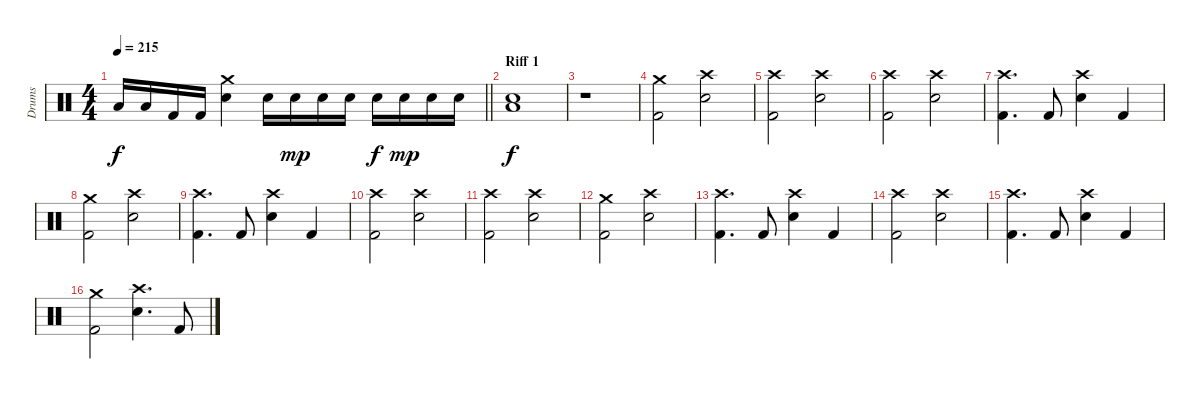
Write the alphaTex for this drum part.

\track ("Drums" "Drums") {instrument percussion}
\staff {score}
\articulation defaults
\ts (4 4)
\tempo 215
\clef neutral
\barLineRight lightlight
\ks c "Low Tom (hit)".16{dy f} "Low Floor Tom (hit)".16 "Kick (hit) 2".16 "Kick (hit) 2".16
("Electric Snare (hit)" "Crash medium (hit)").4 "Electric Snare (hit)".16 "Electric Snare (hit)".16{dy mp} "Electric Snare (hit)".16 "Electric Snare (hit)".16 "Electric Snare (hit)".16{dy f} "Electric Snare (hit)".16{dy mp} "Electric Snare (hit)".16 "Electric Snare (hit)".16 |
\section ("" "Riff 1")
("Electric Snare (hit)" "Low Floor Tom (hit)").1{dy f} |
r.1 |
("Kick (hit) 2" "Crash medium (hit)").2 ("Electric Snare (hit)" "Crash high (hit)").2 |
("Kick (hit) 2" "Crash high (hit)").2 ("Electric Snare (hit)" "Crash high (hit)").2 |
("Kick (hit) 2" "Crash high (hit)").2 ("Electric Snare (hit)" "Crash high (hit)").2 |
("Kick (hit) 2" "Crash high (hit)").4{d} "Kick (hit) 2".8 ("Electric Snare (hit)" "Crash high (hit)").4 "Kick (hit) 2".4 |
("Kick (hit) 2" "Crash medium (hit)").2 ("Electric Snare (hit)" "Crash high (hit)").2 |
("Kick (hit) 2" "Crash high (hit)").4{d} "Kick (hit) 2".8 ("Electric Snare (hit)" "Crash high (hit)").4 "Kick (hit) 2".4 |
("Kick (hit) 2" "Crash high (hit)").2 ("Electric Snare (hit)" "Crash high (hit)").2 |
("Kick (hit) 2" "Crash high (hit)").2 ("Electric Snare (hit)" "Crash high (hit)").2 |
("Kick (hit) 2" "Crash medium (hit)").2 ("Electric Snare (hit)" "Crash high (hit)").2 |
("Kick (hit) 2" "Crash high (hit)").4{d} "Kick (hit) 2".8 ("Electric Snare (hit)" "Crash high (hit)").4 "Kick (hit) 2".4 |
("Kick (hit) 2" "Crash high (hit)").2 ("Electric Snare (hit)" "Crash high (hit)").2 |
("Kick (hit) 2" "Crash high (hit)").4{d} "Kick (hit) 2".8 ("Electric Snare (hit)" "Crash high (hit)").4 "Kick (hit) 2".4 |
("Kick (hit) 2" "Crash medium (hit)").2 ("Electric Snare (hit)" "Crash high (hit)").4{d} "Kick (hit) 2".8
